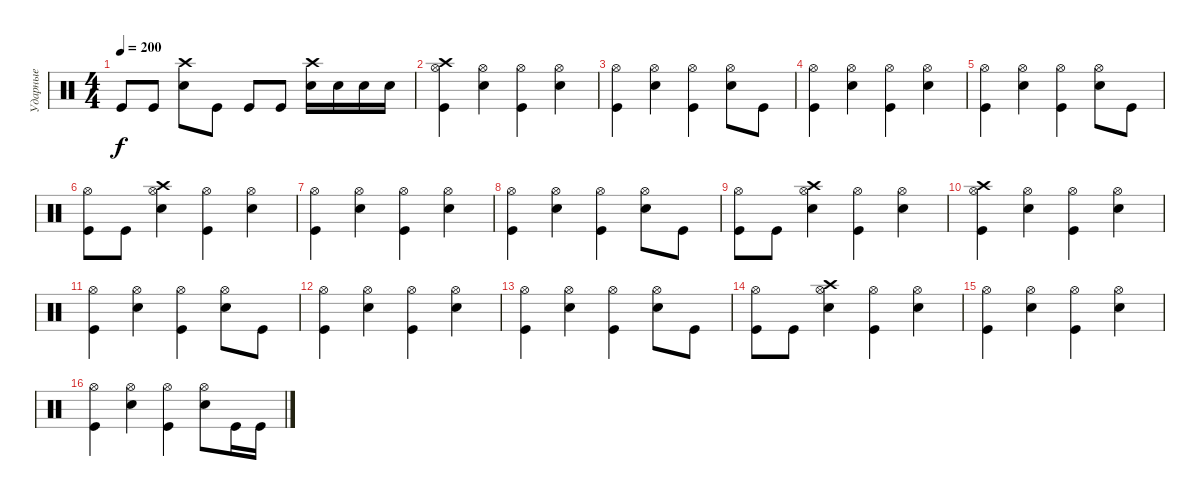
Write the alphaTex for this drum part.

\track ("Ударные" "Ударные") {instrument percussion}
\staff {score}
\articulation defaults
\ts (4 4)
\tempo 200
\clef neutral
\ks c "Kick (hit)".8{dy f} "Kick (hit)".8
("Electric Snare (hit)" "Crash high (hit)").8 "Kick (hit)".8 "Kick (hit)".8 "Kick (hit)".8 ("Electric Snare (hit)" "Crash high (hit)").16 "Electric Snare (hit)".16 "Electric Snare (hit)".16 "Electric Snare (hit)".16 |
("Hi-Hat (open)" "Crash high (hit)" "Kick (hit)").4 ("Hi-Hat (open)" "Electric Snare (hit)").4 ("Hi-Hat (open)" "Kick (hit)").4 ("Hi-Hat (open)" "Electric Snare (hit)").4 |
("Hi-Hat (open)" "Kick (hit)").4 ("Hi-Hat (open)" "Electric Snare (hit)").4 ("Hi-Hat (open)" "Kick (hit)").4 ("Hi-Hat (open)" "Electric Snare (hit)").8 "Kick (hit)".8 |
("Hi-Hat (open)" "Kick (hit)").4 ("Hi-Hat (open)" "Electric Snare (hit)").4 ("Hi-Hat (open)" "Kick (hit)").4 ("Hi-Hat (open)" "Electric Snare (hit)").4 |
("Hi-Hat (open)" "Kick (hit)").4 ("Hi-Hat (open)" "Electric Snare (hit)").4 ("Hi-Hat (open)" "Kick (hit)").4 ("Hi-Hat (open)" "Electric Snare (hit)").8 "Kick (hit)".8 |
("Hi-Hat (open)" "Kick (hit)").8 "Kick (hit)".8 ("Hi-Hat (open)" "Electric Snare (hit)" "Crash high (hit)").4 ("Hi-Hat (open)" "Kick (hit)").4 ("Hi-Hat (open)" "Electric Snare (hit)").4 |
("Hi-Hat (open)" "Kick (hit)").4 ("Hi-Hat (open)" "Electric Snare (hit)").4 ("Hi-Hat (open)" "Kick (hit)").4 ("Hi-Hat (open)" "Electric Snare (hit)").4 |
("Hi-Hat (open)" "Kick (hit)").4 ("Hi-Hat (open)" "Electric Snare (hit)").4 ("Hi-Hat (open)" "Kick (hit)").4 ("Hi-Hat (open)" "Electric Snare (hit)").8 "Kick (hit)".8 |
("Hi-Hat (open)" "Kick (hit)").8 "Kick (hit)".8 ("Hi-Hat (open)" "Electric Snare (hit)" "Crash high (hit)").4 ("Hi-Hat (open)" "Kick (hit)").4 ("Hi-Hat (open)" "Electric Snare (hit)").4 |
("Hi-Hat (open)" "Crash high (hit)" "Kick (hit)").4 ("Hi-Hat (open)" "Electric Snare (hit)").4 ("Hi-Hat (open)" "Kick (hit)").4 ("Hi-Hat (open)" "Electric Snare (hit)").4 |
("Hi-Hat (open)" "Kick (hit)").4 ("Hi-Hat (open)" "Electric Snare (hit)").4 ("Hi-Hat (open)" "Kick (hit)").4 ("Hi-Hat (open)" "Electric Snare (hit)").8 "Kick (hit)".8 |
("Hi-Hat (open)" "Kick (hit)").4 ("Hi-Hat (open)" "Electric Snare (hit)").4 ("Hi-Hat (open)" "Kick (hit)").4 ("Hi-Hat (open)" "Electric Snare (hit)").4 |
("Hi-Hat (open)" "Kick (hit)").4 ("Hi-Hat (open)" "Electric Snare (hit)").4 ("Hi-Hat (open)" "Kick (hit)").4 ("Hi-Hat (open)" "Electric Snare (hit)").8 "Kick (hit)".8 |
("Hi-Hat (open)" "Kick (hit)").8 "Kick (hit)".8 ("Hi-Hat (open)" "Electric Snare (hit)" "Crash high (hit)").4 ("Hi-Hat (open)" "Kick (hit)").4 ("Hi-Hat (open)" "Electric Snare (hit)").4 |
("Hi-Hat (open)" "Kick (hit)").4 ("Hi-Hat (open)" "Electric Snare (hit)").4 ("Hi-Hat (open)" "Kick (hit)").4 ("Hi-Hat (open)" "Electric Snare (hit)").4 |
("Hi-Hat (open)" "Kick (hit)").4 ("Hi-Hat (open)" "Electric Snare (hit)").4 ("Hi-Hat (open)" "Kick (hit)").4 ("Hi-Hat (open)" "Electric Snare (hit)").8 "Kick (hit)".16 "Kick (hit)".16
